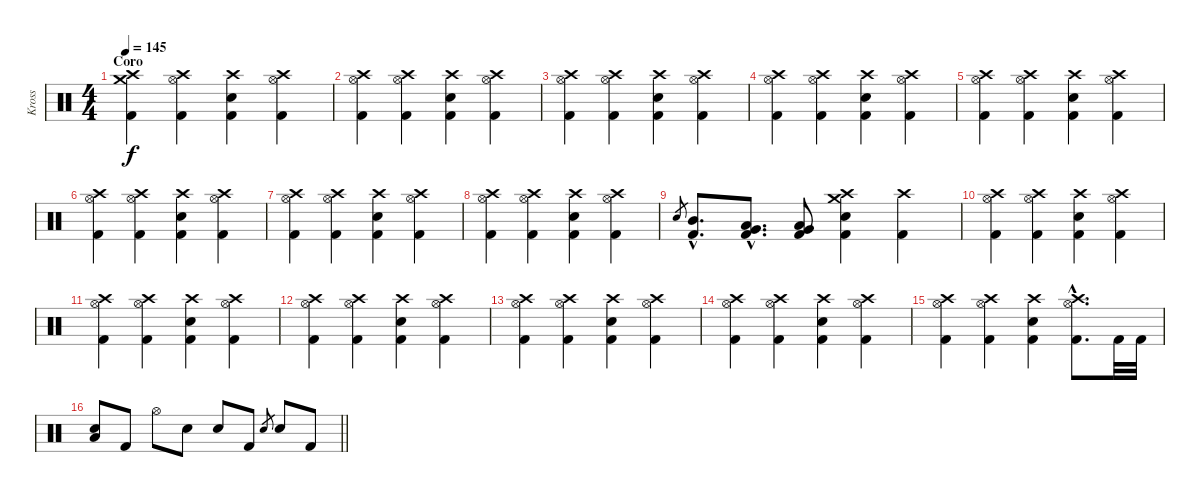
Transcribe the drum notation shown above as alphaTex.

\track ("Kross" "Kross") {instrument percussion}
\staff {score}
\articulation defaults
\ts (4 4)
\section ("" "Coro")
\tempo 145
\clef neutral
\ks c
("Crash medium (hit)" "Crash high (hit)" "Kick (hit) 2").4{dy f} ("Crash high (hit)" "Hi-Hat (open)" "Kick (hit) 2").4 ("Crash high (hit)" "Electric Snare (hit)" "Kick (hit) 2").4 ("Crash high (hit)" "Hi-Hat (open)" "Kick (hit) 2").4 |
("Crash high (hit)" "Hi-Hat (open)" "Kick (hit) 2").4 ("Crash high (hit)" "Hi-Hat (open)" "Kick (hit) 2").4 ("Crash high (hit)" "Electric Snare (hit)" "Kick (hit) 2").4 ("Crash high (hit)" "Hi-Hat (open)" "Kick (hit) 2").4 |
("Crash high (hit)" "Hi-Hat (open)" "Kick (hit) 2").4 ("Crash high (hit)" "Hi-Hat (open)" "Kick (hit) 2").4 ("Crash high (hit)" "Electric Snare (hit)" "Kick (hit) 2").4 ("Crash high (hit)" "Hi-Hat (open)" "Kick (hit) 2").4 |
("Crash high (hit)" "Hi-Hat (open)" "Kick (hit) 2").4 ("Crash high (hit)" "Hi-Hat (open)" "Kick (hit) 2").4 ("Crash high (hit)" "Electric Snare (hit)" "Kick (hit) 2").4 ("Crash high (hit)" "Hi-Hat (open)" "Kick (hit) 2").4 |
("Crash high (hit)" "Hi-Hat (open)" "Kick (hit) 2").4 ("Crash high (hit)" "Hi-Hat (open)" "Kick (hit) 2").4 ("Crash high (hit)" "Electric Snare (hit)" "Kick (hit) 2").4 ("Crash high (hit)" "Hi-Hat (open)" "Kick (hit) 2").4 |
("Crash high (hit)" "Hi-Hat (open)" "Kick (hit) 2").4 ("Crash high (hit)" "Hi-Hat (open)" "Kick (hit) 2").4 ("Crash high (hit)" "Electric Snare (hit)" "Kick (hit) 2").4 ("Crash high (hit)" "Hi-Hat (open)" "Kick (hit) 2").4 |
("Crash high (hit)" "Hi-Hat (open)" "Kick (hit) 2").4 ("Crash high (hit)" "Hi-Hat (open)" "Kick (hit) 2").4 ("Crash high (hit)" "Electric Snare (hit)" "Kick (hit) 2").4 ("Crash high (hit)" "Hi-Hat (open)" "Kick (hit) 2").4 |
("Crash high (hit)" "Hi-Hat (open)" "Kick (hit) 2").4 ("Crash high (hit)" "Hi-Hat (open)" "Kick (hit) 2").4 ("Crash high (hit)" "Electric Snare (hit)" "Kick (hit) 2").4 ("Crash high (hit)" "Hi-Hat (open)" "Kick (hit) 2").4 |
"Electric Snare (hit)".8{gr} ("Mid Tom (hit)"{hac} "Kick (hit) 2"{hac}).8{d} ("Low Tom (hit)"{hac} "Very Low Tom (hit)"{hac} "Kick (hit) 2"{hac}).8{d} ("Low Tom (hit)" "Very Low Tom (hit)" "Kick (hit) 2").8 ("Crash medium (hit)" "Crash high (hit)" "Electric Snare (hit)" "Kick (hit) 2").4 ("Crash high (hit)" "Kick (hit) 2").4 |
("Crash high (hit)" "Hi-Hat (open)" "Kick (hit) 2").4 ("Crash high (hit)" "Hi-Hat (open)" "Kick (hit) 2").4 ("Crash high (hit)" "Electric Snare (hit)" "Kick (hit) 2").4 ("Crash high (hit)" "Hi-Hat (open)" "Kick (hit) 2").4 |
("Crash high (hit)" "Hi-Hat (open)" "Kick (hit) 2").4 ("Crash high (hit)" "Hi-Hat (open)" "Kick (hit) 2").4 ("Crash high (hit)" "Electric Snare (hit)" "Kick (hit) 2").4 ("Crash high (hit)" "Hi-Hat (open)" "Kick (hit) 2").4 |
("Crash high (hit)" "Hi-Hat (open)" "Kick (hit) 2").4 ("Crash high (hit)" "Hi-Hat (open)" "Kick (hit) 2").4 ("Crash high (hit)" "Electric Snare (hit)" "Kick (hit) 2").4 ("Crash high (hit)" "Hi-Hat (open)" "Kick (hit) 2").4 |
("Crash high (hit)" "Hi-Hat (open)" "Kick (hit) 2").4 ("Crash high (hit)" "Hi-Hat (open)" "Kick (hit) 2").4 ("Crash high (hit)" "Electric Snare (hit)" "Kick (hit) 2").4 ("Crash high (hit)" "Hi-Hat (open)" "Kick (hit) 2").4 |
("Crash high (hit)" "Hi-Hat (open)" "Kick (hit) 2").4 ("Crash high (hit)" "Hi-Hat (open)" "Kick (hit) 2").4 ("Crash high (hit)" "Electric Snare (hit)" "Kick (hit) 2").4 ("Crash high (hit)" "Hi-Hat (open)" "Kick (hit) 2").4 |
("Crash high (hit)" "Hi-Hat (open)" "Kick (hit) 2").4 ("Crash high (hit)" "Hi-Hat (open)" "Kick (hit) 2").4 ("Crash high (hit)" "Electric Snare (hit)" "Kick (hit) 2").4 ("Crash high (hit)"{hac} "Hi-Hat (open)"{hac} "Kick (hit) 2"{hac}).8{d} "Kick (hit) 2".32 "Kick (hit) 2".32 |
\barLineRight lightlight
("Low Tom (hit)" "Electric Snare (hit)").8 "Kick (hit) 2".8 "Hi-Hat (open)".8 "Electric Snare (hit)".8 "Electric Snare (hit)".8 "Kick (hit) 2".8 "Electric Snare (hit)".8{gr} "Electric Snare (hit)".8 "Kick (hit) 2".8
